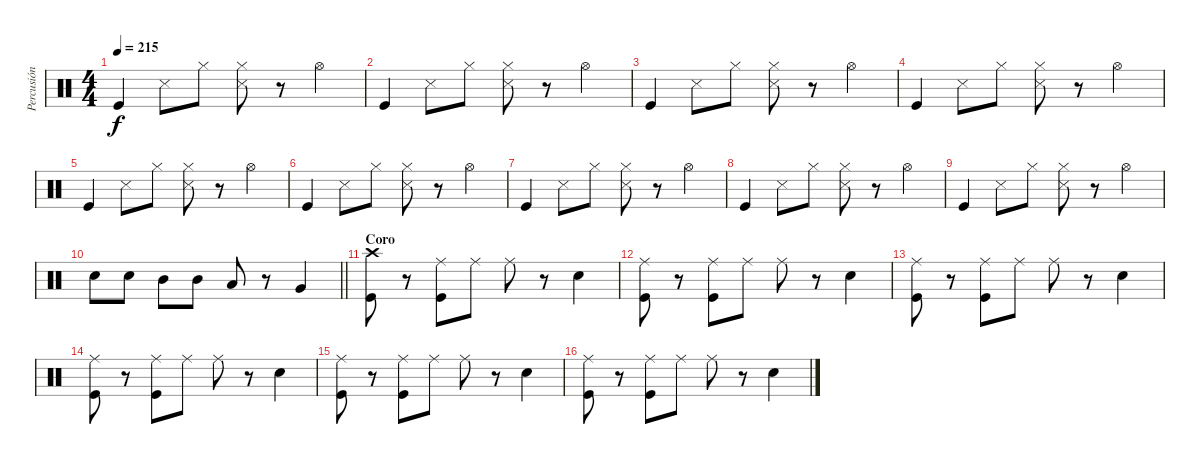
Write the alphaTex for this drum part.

\track ("Percusión" "Percusión") {instrument percussion}
\staff {score}
\articulation defaults
\ts (4 4)
\tempo 215
\clef neutral
\ks c "Kick (hit)".4{dy f} "Snare (side stick) 3".8 "Hi-Hat (closed)".8
("Hi-Hat (closed)" "Snare (side stick) 3").8 r.8 "Hi-Hat (open)".4 |
"Kick (hit)".4 "Snare (side stick) 3".8 "Hi-Hat (closed)".8 ("Hi-Hat (closed)" "Snare (side stick) 3").8 r.8 "Hi-Hat (open)".4 |
"Kick (hit)".4 "Snare (side stick) 3".8 "Hi-Hat (closed)".8 ("Hi-Hat (closed)" "Snare (side stick) 3").8 r.8 "Hi-Hat (open)".4 |
"Kick (hit)".4 "Snare (side stick) 3".8 "Hi-Hat (closed)".8 ("Hi-Hat (closed)" "Snare (side stick) 3").8 r.8 "Hi-Hat (open)".4 |
"Kick (hit)".4 "Snare (side stick) 3".8 "Hi-Hat (closed)".8 ("Hi-Hat (closed)" "Snare (side stick) 3").8 r.8 "Hi-Hat (open)".4 |
"Kick (hit)".4 "Snare (side stick) 3".8 "Hi-Hat (closed)".8 ("Hi-Hat (closed)" "Snare (side stick) 3").8 r.8 "Hi-Hat (open)".4 |
"Kick (hit)".4 "Snare (side stick) 3".8 "Hi-Hat (closed)".8 ("Hi-Hat (closed)" "Snare (side stick) 3").8 r.8 "Hi-Hat (open)".4 |
"Kick (hit)".4 "Snare (side stick) 3".8 "Hi-Hat (closed)".8 ("Hi-Hat (closed)" "Snare (side stick) 3").8 r.8 "Hi-Hat (open)".4 |
"Kick (hit)".4 "Snare (side stick) 3".8 "Hi-Hat (closed)".8 ("Hi-Hat (closed)" "Snare (side stick) 3").8 r.8 "Hi-Hat (open)".4 |
\barLineRight lightlight "Snare (hit) 2".8 "Snare (hit) 2".8 "Mid Tom (hit)".8 "Mid Tom (hit)".8 "Low Tom (hit)".8
r.8 "Very Low Tom (hit)".4 |
\section ("" "Coro")
("Crash high (hit)" "Kick (hit)").8 r.8 ("Ride (middle)" "Kick (hit)").8 "Ride (middle)".8 "Ride (middle)".8 r.8 "Snare (hit) 2".4 |
("Ride (middle)" "Kick (hit)").8 r.8 ("Ride (middle)" "Kick (hit)").8 "Ride (middle)".8 "Ride (middle)".8 r.8 "Snare (hit) 2".4 |
("Ride (middle)" "Kick (hit)").8 r.8 ("Ride (middle)" "Kick (hit)").8 "Ride (middle)".8 "Ride (middle)".8 r.8 "Snare (hit) 2".4 |
("Ride (middle)" "Kick (hit)").8 r.8 ("Ride (middle)" "Kick (hit)").8 "Ride (middle)".8 "Ride (middle)".8 r.8 "Snare (hit) 2".4 |
("Ride (middle)" "Kick (hit)").8 r.8 ("Ride (middle)" "Kick (hit)").8 "Ride (middle)".8 "Ride (middle)".8 r.8 "Snare (hit) 2".4 |
("Ride (middle)" "Kick (hit)").8 r.8 ("Ride (middle)" "Kick (hit)").8 "Ride (middle)".8 "Ride (middle)".8 r.8 "Snare (hit) 2".4
